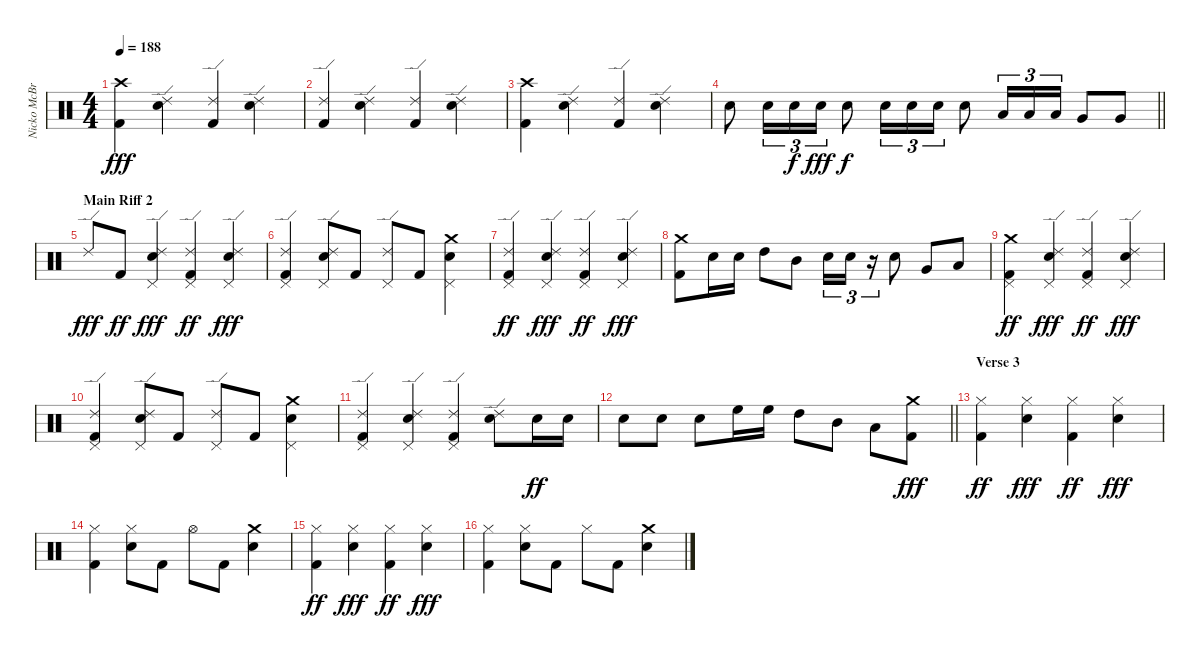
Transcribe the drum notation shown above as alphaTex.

\track ("Nicko McBrain" "Nicko McBr") {instrument percussion}
\staff {score}
\articulation defaults
\ts (4 4)
\tempo 188
\clef neutral
\ks c
("Crash high (hit)" "Kick (hit) 2").4{dy fff} ("Ride (edge) 2" "Electric Snare (hit)").4 ("Ride (edge) 2" "Kick (hit) 2").4 ("Ride (edge) 2" "Electric Snare (hit)").4 |
("Ride (edge) 2" "Kick (hit) 2").4 ("Ride (edge) 2" "Electric Snare (hit)").4 ("Ride (edge) 2" "Kick (hit) 2").4 ("Ride (edge) 2" "Electric Snare (hit)").4 |
("Crash high (hit)" "Kick (hit) 2").4 ("Ride (edge) 2" "Electric Snare (hit)").4 ("Ride (edge) 2" "Kick (hit) 2").4 ("Ride (edge) 2" "Electric Snare (hit)").4 |
\barLineRight lightlight "Electric Snare (hit)".8 "Electric Snare (hit)".16{tu (3 2)} "Electric Snare (hit)".16{tu (3 2) dy f} "Electric Snare (hit)".16{tu (3 2) dy fff} "Electric Snare (hit)".8{dy f} "Electric Snare (hit)".16{tu (3 2)} "Electric Snare (hit)".16{tu (3 2)} "Electric Snare (hit)".16{tu (3 2)} "Electric Snare (hit)".8 "Low Tom (hit)".16{tu (3 2)} "Low Tom (hit)".16{tu (3 2)} "Low Tom (hit)".16{tu (3 2)} "Very Low Tom (hit)".8 "Very Low Tom (hit)".8
|
\section ("" "Main Riff 2")
"Ride (edge) 2".8{dy fff} "Kick (hit) 2".8{dy ff} ("Ride (edge) 2" "Electric Snare (hit)" "Pedal Hi-Hat (hit)").4{dy fff} ("Ride (edge) 2" "Pedal Hi-Hat (hit)" "Kick (hit) 2").4{dy ff} ("Ride (edge) 2" "Electric Snare (hit)" "Pedal Hi-Hat (hit)").4{dy fff} |
("Ride (edge) 2" "Pedal Hi-Hat (hit)" "Kick (hit) 2").4 ("Ride (edge) 2" "Electric Snare (hit)" "Pedal Hi-Hat (hit)").8 "Kick (hit) 2".8 ("Ride (edge) 2" "Pedal Hi-Hat (hit)").8 "Kick (hit) 2".8 ("Crash medium (hit)" "Electric Snare (hit)" "Pedal Hi-Hat (hit)").4 |
("Ride (edge) 2" "Pedal Hi-Hat (hit)" "Kick (hit) 2").4{dy ff} ("Ride (edge) 2" "Electric Snare (hit)" "Pedal Hi-Hat (hit)").4{dy fff} ("Ride (edge) 2" "Pedal Hi-Hat (hit)" "Kick (hit) 2").4{dy ff} ("Ride (edge) 2" "Electric Snare (hit)" "Pedal Hi-Hat (hit)").4{dy fff} |
("Crash medium (hit)" "Kick (hit) 2").8 "Electric Snare (hit)".16 "Electric Snare (hit)".16 "High Tom (hit)".8 "Mid Tom (hit)".8 "Electric Snare (hit)".16{tu (3 2)} "Electric Snare (hit)".16{tu (3 2)} r.16{tu (3 2)} "Electric Snare (hit)".8 "Very Low Tom (hit)".8 "Low Floor Tom (hit)".8 |
("Crash medium (hit)" "Pedal Hi-Hat (hit)" "Kick (hit) 2").4{dy ff} ("Ride (edge) 2" "Electric Snare (hit)" "Pedal Hi-Hat (hit)").4{dy fff} ("Ride (edge) 2" "Pedal Hi-Hat (hit)" "Kick (hit) 2").4{dy ff} ("Ride (edge) 2" "Electric Snare (hit)" "Pedal Hi-Hat (hit)").4{dy fff} |
("Ride (edge) 2" "Pedal Hi-Hat (hit)" "Kick (hit) 2").4 ("Ride (edge) 2" "Electric Snare (hit)" "Pedal Hi-Hat (hit)").8 "Kick (hit) 2".8 ("Ride (edge) 2" "Pedal Hi-Hat (hit)").8 "Kick (hit) 2".8 ("Crash medium (hit)" "Electric Snare (hit)" "Pedal Hi-Hat (hit)").4 |
("Ride (edge) 2" "Pedal Hi-Hat (hit)" "Kick (hit) 2").4 ("Ride (edge) 2" "Electric Snare (hit)" "Pedal Hi-Hat (hit)").4 ("Ride (edge) 2" "Pedal Hi-Hat (hit)" "Kick (hit) 2").4 ("Ride (edge) 2" "Electric Snare (hit)").8 "Electric Snare (hit)".16{dy ff} "Electric Snare (hit)".16 |
\barLineRight lightlight "Electric Snare (hit)".8 "Electric Snare (hit)".8 "Electric Snare (hit)".8 "High Floor Tom (hit)".16 "High Floor Tom (hit)".16 "High Tom (hit)".8 "Mid Tom (hit)".8 "Low Tom (hit)".8
("Crash medium (hit)" "Kick (hit) 2").8{dy fff} |
\section ("" "Verse 3")
("Hi-Hat (closed)" "Kick (hit) 2").4{dy ff} ("Hi-Hat (closed)" "Electric Snare (hit)").4{dy fff} ("Hi-Hat (closed)" "Kick (hit) 2").4{dy ff} ("Hi-Hat (closed)" "Electric Snare (hit)").4{dy fff} |
("Hi-Hat (closed)" "Kick (hit) 2").4 ("Hi-Hat (closed)" "Electric Snare (hit)").8 "Kick (hit) 2".8 "Hi-Hat (open)".8 "Kick (hit) 2".8 ("Crash medium (hit)" "Electric Snare (hit)").4 |
("Hi-Hat (closed)" "Kick (hit) 2").4{dy ff} ("Hi-Hat (closed)" "Electric Snare (hit)").4{dy fff} ("Hi-Hat (closed)" "Kick (hit) 2").4{dy ff} ("Hi-Hat (closed)" "Electric Snare (hit)").4{dy fff} |
("Hi-Hat (closed)" "Kick (hit) 2").4 ("Hi-Hat (closed)" "Electric Snare (hit)").8 "Kick (hit) 2".8 "Hi-Hat (closed)".8 "Kick (hit) 2".8 ("Crash medium (hit)" "Electric Snare (hit)").4
